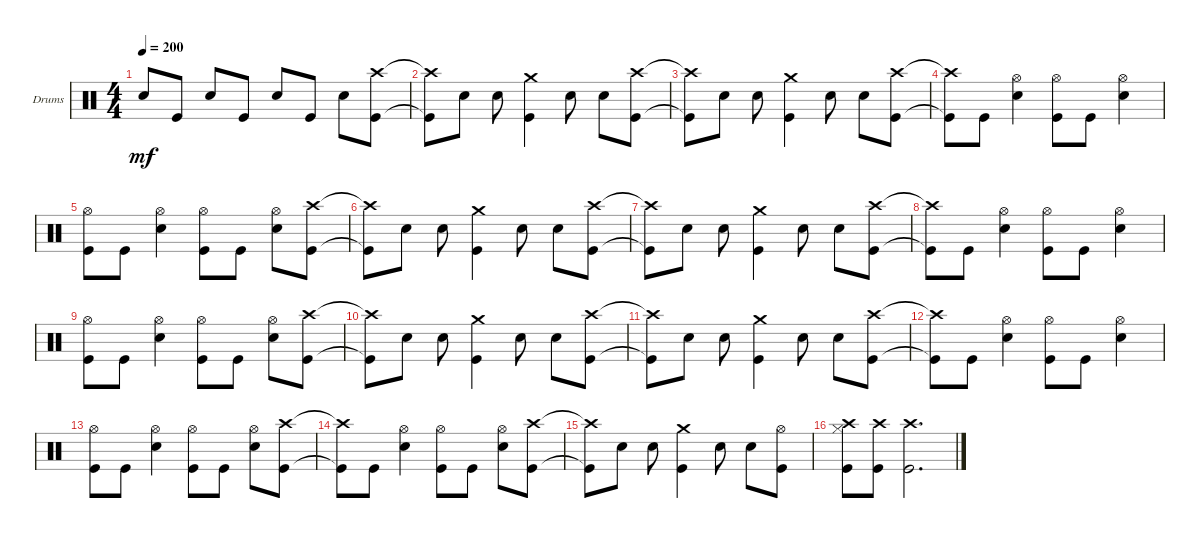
\bracketExtendMode groupsimilarinstruments
\firstSystemTrackNameOrientation horizontal
\otherSystemsTrackNameOrientation horizontal
\track ("Drums" "Drums") {instrument percussion}
\staff {score}
\articulation defaults
\ts (4 4)
\tempo 200
\clef neutral
\ks c "Snare (hit) 2".8{dy mf} "Kick (hit)".8 "Snare (hit) 2".8 "Kick (hit)".8 "Snare (hit) 2".8 "Kick (hit)".8 "Snare (hit) 2".8
("Kick (hit)" "Crash high (hit)").8 |
("Kick (hit)"{t} "Crash high (hit)"{t}).8 "Snare (hit) 2".8 "Snare (hit) 2".8 ("Kick (hit)" "Crash medium (hit)").4 "Snare (hit) 2".8 "Snare (hit) 2".8 ("Kick (hit)" "Crash high (hit)").8 |
("Kick (hit)"{t} "Crash high (hit)"{t}).8 "Snare (hit) 2".8 "Snare (hit) 2".8 ("Kick (hit)" "Crash medium (hit)").4 "Snare (hit) 2".8 "Snare (hit) 2".8 ("Kick (hit)" "Crash high (hit)").8 |
("Kick (hit)"{t} "Crash high (hit)"{t}).8 "Kick (hit)".8 ("Snare (hit) 2" "Hi-Hat (open)").4 ("Kick (hit)" "Hi-Hat (open)").8 "Kick (hit)".8 ("Snare (hit) 2" "Hi-Hat (open)").4 |
("Kick (hit)" "Hi-Hat (open)").8 "Kick (hit)".8 ("Snare (hit) 2" "Hi-Hat (open)").4 ("Kick (hit)" "Hi-Hat (open)").8 "Kick (hit)".8 ("Snare (hit) 2" "Hi-Hat (open)").8 ("Kick (hit)" "Crash high (hit)").8 |
("Kick (hit)"{t} "Crash high (hit)"{t}).8 "Snare (hit) 2".8 "Snare (hit) 2".8 ("Kick (hit)" "Crash medium (hit)").4 "Snare (hit) 2".8 "Snare (hit) 2".8 ("Kick (hit)" "Crash high (hit)").8 |
("Kick (hit)"{t} "Crash high (hit)"{t}).8 "Snare (hit) 2".8 "Snare (hit) 2".8 ("Kick (hit)" "Crash medium (hit)").4 "Snare (hit) 2".8 "Snare (hit) 2".8 ("Kick (hit)" "Crash high (hit)").8 |
("Kick (hit)"{t} "Crash high (hit)"{t}).8 "Kick (hit)".8 ("Snare (hit) 2" "Hi-Hat (open)").4 ("Kick (hit)" "Hi-Hat (open)").8 "Kick (hit)".8 ("Snare (hit) 2" "Hi-Hat (open)").4 |
("Kick (hit)" "Hi-Hat (open)").8 "Kick (hit)".8 ("Snare (hit) 2" "Hi-Hat (open)").4 ("Kick (hit)" "Hi-Hat (open)").8 "Kick (hit)".8 ("Snare (hit) 2" "Hi-Hat (open)").8 ("Kick (hit)" "Crash high (hit)").8 |
("Kick (hit)"{t} "Crash high (hit)"{t}).8 "Snare (hit) 2".8 "Snare (hit) 2".8 ("Kick (hit)" "Crash medium (hit)").4 "Snare (hit) 2".8 "Snare (hit) 2".8 ("Kick (hit)" "Crash high (hit)").8 |
("Kick (hit)"{t} "Crash high (hit)"{t}).8 "Snare (hit) 2".8 "Snare (hit) 2".8 ("Kick (hit)" "Crash medium (hit)").4 "Snare (hit) 2".8 "Snare (hit) 2".8 ("Kick (hit)" "Crash high (hit)").8 |
("Kick (hit)"{t} "Crash high (hit)"{t}).8 "Kick (hit)".8 ("Snare (hit) 2" "Hi-Hat (open)").4 ("Kick (hit)" "Hi-Hat (open)").8 "Kick (hit)".8 ("Snare (hit) 2" "Hi-Hat (open)").4 |
("Kick (hit)" "Hi-Hat (open)").8 "Kick (hit)".8 ("Snare (hit) 2" "Hi-Hat (open)").4 ("Kick (hit)" "Hi-Hat (open)").8 "Kick (hit)".8 ("Snare (hit) 2" "Hi-Hat (open)").8 ("Kick (hit)" "Crash high (hit)").8 |
("Kick (hit)"{t} "Crash high (hit)"{t}).8 "Kick (hit)".8 ("Snare (hit) 2" "Hi-Hat (open)").4 ("Kick (hit)" "Hi-Hat (open)").8 "Kick (hit)".8 ("Snare (hit) 2" "Hi-Hat (open)").8 ("Kick (hit)" "Crash high (hit)").8 |
("Kick (hit)"{t} "Crash high (hit)"{t}).8 "Snare (hit) 2".8 "Snare (hit) 2".8 ("Kick (hit)" "Crash medium (hit)").4 "Snare (hit) 2".8 "Snare (hit) 2".8 ("Kick (hit)" "Hi-Hat (open)").8 |
("Kick (hit)" "Hi-Hat (closed)" "Crash high (hit)").8 ("Kick (hit)" "Crash high (hit)").8 ("Kick (hit)" "Crash high (hit)").2{d}
